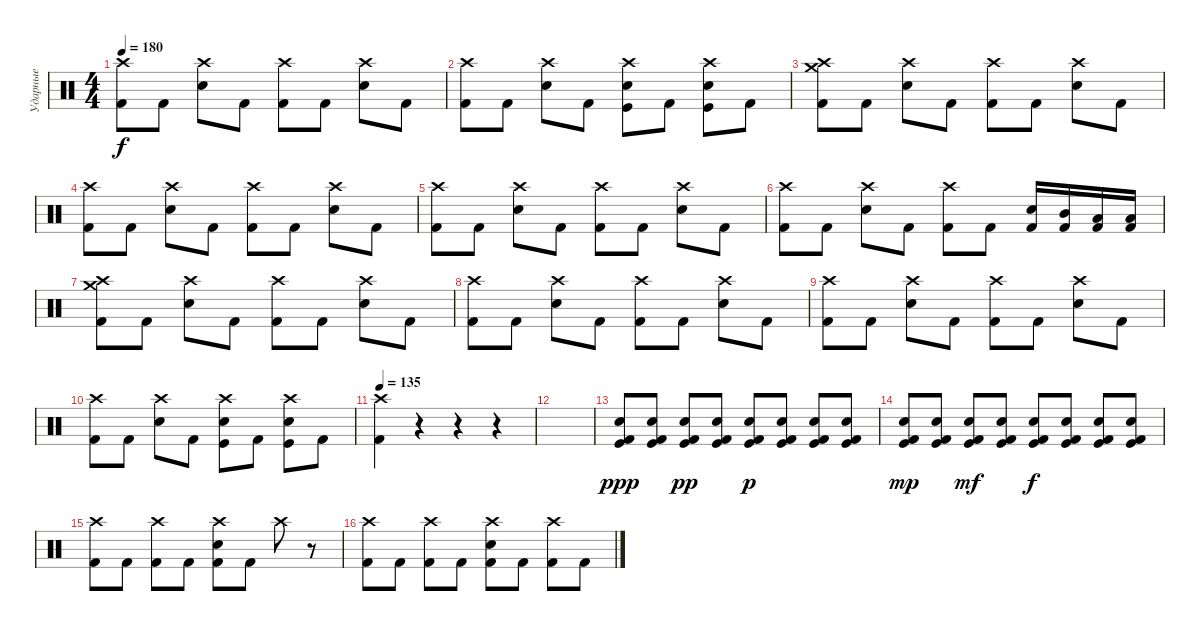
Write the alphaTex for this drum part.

\track ("Ударные" "Ударные") {instrument percussion}
\staff {score}
\articulation defaults
\ts (4 4)
\tempo 180
\clef neutral
\ks c
("Crash high (hit)" "Kick (hit) 2").8{dy f} "Kick (hit) 2".8 ("Crash high (hit)" "Electric Snare (hit)").8 "Kick (hit) 2".8 ("Crash high (hit)" "Kick (hit) 2").8 "Kick (hit) 2".8 ("Crash high (hit)" "Electric Snare (hit)").8 "Kick (hit) 2".8 |
("Crash high (hit)" "Kick (hit) 2").8 "Kick (hit) 2".8 ("Crash high (hit)" "Electric Snare (hit)").8 "Kick (hit) 2".8 ("Crash high (hit)" "Kick (hit)" "Electric Snare (hit)").8 "Kick (hit) 2".8 ("Crash high (hit)" "Kick (hit)" "Electric Snare (hit)").8 "Kick (hit) 2".8 |
("Crash medium (hit)" "Crash high (hit)" "Kick (hit) 2").8 "Kick (hit) 2".8 ("Crash high (hit)" "Electric Snare (hit)").8 "Kick (hit) 2".8 ("Crash high (hit)" "Kick (hit) 2").8 "Kick (hit) 2".8 ("Crash high (hit)" "Electric Snare (hit)").8 "Kick (hit) 2".8 |
("Crash high (hit)" "Kick (hit) 2").8 "Kick (hit) 2".8 ("Crash high (hit)" "Electric Snare (hit)").8 "Kick (hit) 2".8 ("Crash high (hit)" "Kick (hit) 2").8 "Kick (hit) 2".8 ("Crash high (hit)" "Electric Snare (hit)").8 "Kick (hit) 2".8 |
("Crash high (hit)" "Kick (hit) 2").8 "Kick (hit) 2".8 ("Crash high (hit)" "Electric Snare (hit)").8 "Kick (hit) 2".8 ("Crash high (hit)" "Kick (hit) 2").8 "Kick (hit) 2".8 ("Crash high (hit)" "Electric Snare (hit)").8 "Kick (hit) 2".8 |
("Crash high (hit)" "Kick (hit) 2").8 "Kick (hit) 2".8 ("Crash high (hit)" "Electric Snare (hit)").8 "Kick (hit) 2".8 ("Crash high (hit)" "Kick (hit) 2").8 "Kick (hit) 2".8 ("Electric Snare (hit)" "Kick (hit) 2").16 ("Mid Tom (hit)" "Kick (hit) 2").16 ("Low Tom (hit)" "Kick (hit) 2").16 ("Low Tom (hit)" "Kick (hit) 2").16 |
("Crash medium (hit)" "Crash high (hit)" "Kick (hit) 2").8 "Kick (hit) 2".8 ("Crash high (hit)" "Electric Snare (hit)").8 "Kick (hit) 2".8 ("Crash high (hit)" "Kick (hit) 2").8 "Kick (hit) 2".8 ("Crash high (hit)" "Electric Snare (hit)").8 "Kick (hit) 2".8 |
("Crash high (hit)" "Kick (hit) 2").8 "Kick (hit) 2".8 ("Crash high (hit)" "Electric Snare (hit)").8 "Kick (hit) 2".8 ("Crash high (hit)" "Kick (hit) 2").8 "Kick (hit) 2".8 ("Crash high (hit)" "Electric Snare (hit)").8 "Kick (hit) 2".8 |
("Crash high (hit)" "Kick (hit) 2").8 "Kick (hit) 2".8 ("Crash high (hit)" "Electric Snare (hit)").8 "Kick (hit) 2".8 ("Crash high (hit)" "Kick (hit) 2").8 "Kick (hit) 2".8 ("Crash high (hit)" "Electric Snare (hit)").8 "Kick (hit) 2".8 |
("Crash high (hit)" "Kick (hit) 2").8 "Kick (hit) 2".8 ("Crash high (hit)" "Electric Snare (hit)").8 "Kick (hit) 2".8 ("Crash high (hit)" "Kick (hit)" "Electric Snare (hit)").8 "Kick (hit) 2".8 ("Crash high (hit)" "Kick (hit)" "Electric Snare (hit)").8 "Kick (hit) 2".8 |
\tempo 135
("Crash high (hit)" "Kick (hit) 2").4 r.4 r.4 r.4 |
|
("Electric Snare (hit)" "Kick (hit) 2" "Kick (hit)").8{dy ppp} ("Electric Snare (hit)" "Kick (hit) 2" "Kick (hit)").8 ("Electric Snare (hit)" "Kick (hit) 2" "Kick (hit)").8{dy pp} ("Electric Snare (hit)" "Kick (hit) 2" "Kick (hit)").8 ("Electric Snare (hit)" "Kick (hit) 2" "Kick (hit)").8{dy p} ("Electric Snare (hit)" "Kick (hit) 2" "Kick (hit)").8 ("Electric Snare (hit)" "Kick (hit) 2" "Kick (hit)").8 ("Electric Snare (hit)" "Kick (hit) 2" "Kick (hit)").8 |
("Electric Snare (hit)" "Kick (hit) 2" "Kick (hit)").8{dy mp} ("Electric Snare (hit)" "Kick (hit) 2" "Kick (hit)").8 ("Electric Snare (hit)" "Kick (hit) 2" "Kick (hit)").8{dy mf} ("Electric Snare (hit)" "Kick (hit) 2" "Kick (hit)").8 ("Electric Snare (hit)" "Kick (hit) 2" "Kick (hit)").8{dy f} ("Electric Snare (hit)" "Kick (hit) 2" "Kick (hit)").8 ("Electric Snare (hit)" "Kick (hit) 2" "Kick (hit)").8 ("Electric Snare (hit)" "Kick (hit) 2" "Kick (hit)").8 |
("Crash high (hit)" "Kick (hit) 2").8 "Kick (hit) 2".8 ("Crash high (hit)" "Kick (hit) 2").8 "Kick (hit) 2".8 ("Crash high (hit)" "Electric Snare (hit)" "Kick (hit) 2").8 "Kick (hit) 2".8 "Crash high (hit)".8 r.8 |
("Crash high (hit)" "Kick (hit) 2").8 "Kick (hit) 2".8 ("Crash high (hit)" "Kick (hit) 2").8 "Kick (hit) 2".8 ("Crash high (hit)" "Electric Snare (hit)" "Kick (hit) 2").8 "Kick (hit) 2".8 ("Crash high (hit)" "Kick (hit) 2").8 "Kick (hit) 2".8
